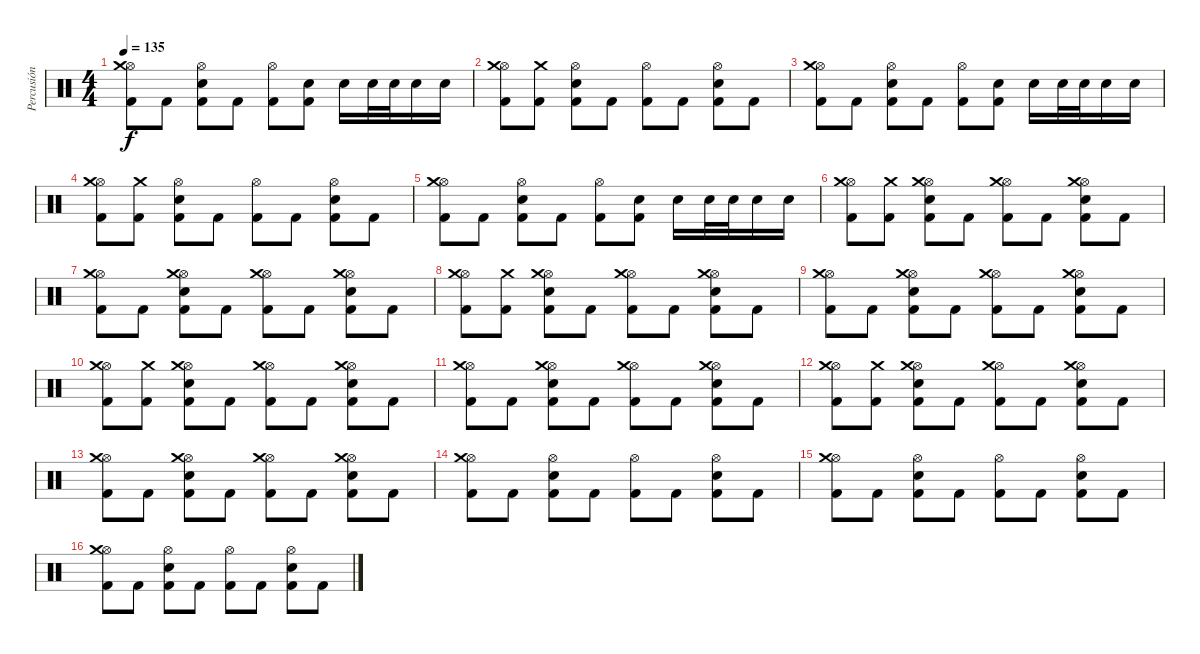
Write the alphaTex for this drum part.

\track ("Percusión" "Percusión") {instrument percussion}
\staff {score}
\articulation defaults
\ts (4 4)
\tempo 135
\clef neutral
\ks c
("Hi-Hat (open)" "Kick (hit) 2" "Crash medium (hit)").8{dy f} "Kick (hit) 2".8 ("Hi-Hat (open)" "Electric Snare (hit)" "Kick (hit) 2").8 "Kick (hit) 2".8 ("Hi-Hat (open)" "Kick (hit) 2").8 ("Kick (hit) 2" "Electric Snare (hit)").8 "Electric Snare (hit)".16 "Electric Snare (hit)".32 "Electric Snare (hit)".32 "Electric Snare (hit)".16 "Electric Snare (hit)".16 |
("Hi-Hat (open)" "Kick (hit) 2" "Crash medium (hit)").8 ("Kick (hit) 2" "Crash medium (hit)").8 ("Hi-Hat (open)" "Electric Snare (hit)" "Kick (hit) 2").8 "Kick (hit) 2".8 ("Hi-Hat (open)" "Kick (hit) 2").8 "Kick (hit) 2".8 ("Hi-Hat (open)" "Electric Snare (hit)" "Kick (hit) 2").8 "Kick (hit) 2".8 |
("Hi-Hat (open)" "Kick (hit) 2" "Crash medium (hit)").8 "Kick (hit) 2".8 ("Hi-Hat (open)" "Electric Snare (hit)" "Kick (hit) 2").8 "Kick (hit) 2".8 ("Hi-Hat (open)" "Kick (hit) 2").8 ("Kick (hit) 2" "Electric Snare (hit)").8 "Electric Snare (hit)".16 "Electric Snare (hit)".32 "Electric Snare (hit)".32 "Electric Snare (hit)".16 "Electric Snare (hit)".16 |
("Hi-Hat (open)" "Kick (hit) 2" "Crash medium (hit)").8 ("Kick (hit) 2" "Crash medium (hit)").8 ("Hi-Hat (open)" "Electric Snare (hit)" "Kick (hit) 2").8 "Kick (hit) 2".8 ("Hi-Hat (open)" "Kick (hit) 2").8 "Kick (hit) 2".8 ("Hi-Hat (open)" "Electric Snare (hit)" "Kick (hit) 2").8 "Kick (hit) 2".8 |
("Hi-Hat (open)" "Kick (hit) 2" "Crash medium (hit)").8 "Kick (hit) 2".8 ("Hi-Hat (open)" "Electric Snare (hit)" "Kick (hit) 2").8 "Kick (hit) 2".8 ("Hi-Hat (open)" "Kick (hit) 2").8 ("Kick (hit) 2" "Electric Snare (hit)").8 "Electric Snare (hit)".16 "Electric Snare (hit)".32 "Electric Snare (hit)".32 "Electric Snare (hit)".16 "Electric Snare (hit)".16 |
("Hi-Hat (open)" "Kick (hit) 2" "Crash medium (hit)").8 ("Kick (hit) 2" "Crash medium (hit)").8 ("Hi-Hat (open)" "Electric Snare (hit)" "Kick (hit) 2" "Crash medium (hit)").8 "Kick (hit) 2".8 ("Hi-Hat (open)" "Kick (hit) 2" "Crash medium (hit)").8 "Kick (hit) 2".8 ("Hi-Hat (open)" "Electric Snare (hit)" "Kick (hit) 2" "Crash medium (hit)").8 "Kick (hit) 2".8 |
("Hi-Hat (open)" "Kick (hit) 2" "Crash medium (hit)").8 "Kick (hit) 2".8 ("Hi-Hat (open)" "Electric Snare (hit)" "Kick (hit) 2" "Crash medium (hit)").8 "Kick (hit) 2".8 ("Hi-Hat (open)" "Kick (hit) 2" "Crash medium (hit)").8 "Kick (hit) 2".8 ("Hi-Hat (open)" "Electric Snare (hit)" "Kick (hit) 2" "Crash medium (hit)").8 "Kick (hit) 2".8 |
("Hi-Hat (open)" "Kick (hit) 2" "Crash medium (hit)").8 ("Kick (hit) 2" "Crash medium (hit)").8 ("Hi-Hat (open)" "Electric Snare (hit)" "Kick (hit) 2" "Crash medium (hit)").8 "Kick (hit) 2".8 ("Hi-Hat (open)" "Kick (hit) 2" "Crash medium (hit)").8 "Kick (hit) 2".8 ("Hi-Hat (open)" "Electric Snare (hit)" "Kick (hit) 2" "Crash medium (hit)").8 "Kick (hit) 2".8 |
("Hi-Hat (open)" "Kick (hit) 2" "Crash medium (hit)").8 "Kick (hit) 2".8 ("Hi-Hat (open)" "Electric Snare (hit)" "Kick (hit) 2" "Crash medium (hit)").8 "Kick (hit) 2".8 ("Hi-Hat (open)" "Kick (hit) 2" "Crash medium (hit)").8 "Kick (hit) 2".8 ("Hi-Hat (open)" "Electric Snare (hit)" "Kick (hit) 2" "Crash medium (hit)").8 "Kick (hit) 2".8 |
("Hi-Hat (open)" "Kick (hit) 2" "Crash medium (hit)").8 ("Kick (hit) 2" "Crash medium (hit)").8 ("Hi-Hat (open)" "Electric Snare (hit)" "Kick (hit) 2" "Crash medium (hit)").8 "Kick (hit) 2".8 ("Hi-Hat (open)" "Kick (hit) 2" "Crash medium (hit)").8 "Kick (hit) 2".8 ("Hi-Hat (open)" "Electric Snare (hit)" "Kick (hit) 2" "Crash medium (hit)").8 "Kick (hit) 2".8 |
("Hi-Hat (open)" "Kick (hit) 2" "Crash medium (hit)").8 "Kick (hit) 2".8 ("Hi-Hat (open)" "Electric Snare (hit)" "Kick (hit) 2" "Crash medium (hit)").8 "Kick (hit) 2".8 ("Hi-Hat (open)" "Kick (hit) 2" "Crash medium (hit)").8 "Kick (hit) 2".8 ("Hi-Hat (open)" "Electric Snare (hit)" "Kick (hit) 2" "Crash medium (hit)").8 "Kick (hit) 2".8 |
("Hi-Hat (open)" "Kick (hit) 2" "Crash medium (hit)").8 ("Kick (hit) 2" "Crash medium (hit)").8 ("Hi-Hat (open)" "Electric Snare (hit)" "Kick (hit) 2" "Crash medium (hit)").8 "Kick (hit) 2".8 ("Hi-Hat (open)" "Kick (hit) 2" "Crash medium (hit)").8 "Kick (hit) 2".8 ("Hi-Hat (open)" "Electric Snare (hit)" "Kick (hit) 2" "Crash medium (hit)").8 "Kick (hit) 2".8 |
("Hi-Hat (open)" "Kick (hit) 2" "Crash medium (hit)").8 "Kick (hit) 2".8 ("Hi-Hat (open)" "Electric Snare (hit)" "Kick (hit) 2" "Crash medium (hit)").8 "Kick (hit) 2".8 ("Hi-Hat (open)" "Kick (hit) 2" "Crash medium (hit)").8 "Kick (hit) 2".8 ("Hi-Hat (open)" "Electric Snare (hit)" "Kick (hit) 2" "Crash medium (hit)").8 "Kick (hit) 2".8 |
("Hi-Hat (open)" "Kick (hit) 2" "Crash medium (hit)").8 "Kick (hit) 2".8 ("Hi-Hat (open)" "Electric Snare (hit)" "Kick (hit) 2").8 "Kick (hit) 2".8 ("Hi-Hat (open)" "Kick (hit) 2").8 "Kick (hit) 2".8 ("Hi-Hat (open)" "Electric Snare (hit)" "Kick (hit) 2").8 "Kick (hit) 2".8 |
("Hi-Hat (open)" "Kick (hit) 2" "Crash medium (hit)").8 "Kick (hit) 2".8 ("Hi-Hat (open)" "Electric Snare (hit)" "Kick (hit) 2").8 "Kick (hit) 2".8 ("Hi-Hat (open)" "Kick (hit) 2").8 "Kick (hit) 2".8 ("Hi-Hat (open)" "Electric Snare (hit)" "Kick (hit) 2").8 "Kick (hit) 2".8 |
("Hi-Hat (open)" "Kick (hit) 2" "Crash medium (hit)").8 "Kick (hit) 2".8 ("Hi-Hat (open)" "Electric Snare (hit)" "Kick (hit) 2").8 "Kick (hit) 2".8 ("Hi-Hat (open)" "Kick (hit) 2").8 "Kick (hit) 2".8 ("Hi-Hat (open)" "Electric Snare (hit)" "Kick (hit) 2").8 "Kick (hit) 2".8
